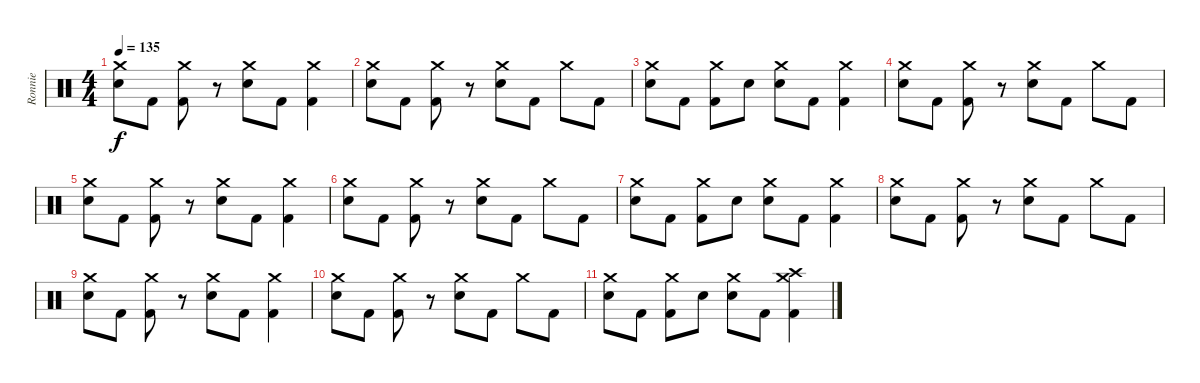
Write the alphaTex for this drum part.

\track ("Ronnie" "Ronnie") {instrument percussion}
\staff {score}
\articulation defaults
\ts (4 4)
\tempo 135
\clef neutral
\ks c
("Crash medium (hit)" "Electric Snare (hit)").8{dy f} "Kick (hit) 2".8 ("Kick (hit) 2" "Crash medium (hit)").8 r.8 ("Crash medium (hit)" "Electric Snare (hit)").8 "Kick (hit) 2".8 ("Kick (hit) 2" "Crash medium (hit)").4 |
("Crash medium (hit)" "Electric Snare (hit)").8 "Kick (hit) 2".8 ("Kick (hit) 2" "Crash medium (hit)").8 r.8 ("Crash medium (hit)" "Electric Snare (hit)").8 "Kick (hit) 2".8 "Crash medium (hit)".8 "Kick (hit) 2".8 |
("Crash medium (hit)" "Electric Snare (hit)").8 "Kick (hit) 2".8 ("Kick (hit) 2" "Crash medium (hit)").8 "Electric Snare (hit)".8 ("Crash medium (hit)" "Electric Snare (hit)").8 "Kick (hit) 2".8 ("Kick (hit) 2" "Crash medium (hit)").4 |
("Crash medium (hit)" "Electric Snare (hit)").8 "Kick (hit) 2".8 ("Kick (hit) 2" "Crash medium (hit)").8 r.8 ("Crash medium (hit)" "Electric Snare (hit)").8 "Kick (hit) 2".8 "Crash medium (hit)".8 "Kick (hit) 2".8 |
("Crash medium (hit)" "Electric Snare (hit)").8 "Kick (hit) 2".8 ("Kick (hit) 2" "Crash medium (hit)").8 r.8 ("Crash medium (hit)" "Electric Snare (hit)").8 "Kick (hit) 2".8 ("Kick (hit) 2" "Crash medium (hit)").4 |
("Crash medium (hit)" "Electric Snare (hit)").8 "Kick (hit) 2".8 ("Kick (hit) 2" "Crash medium (hit)").8 r.8 ("Crash medium (hit)" "Electric Snare (hit)").8 "Kick (hit) 2".8 "Crash medium (hit)".8 "Kick (hit) 2".8 |
("Crash medium (hit)" "Electric Snare (hit)").8 "Kick (hit) 2".8 ("Kick (hit) 2" "Crash medium (hit)").8 "Electric Snare (hit)".8 ("Crash medium (hit)" "Electric Snare (hit)").8 "Kick (hit) 2".8 ("Kick (hit) 2" "Crash medium (hit)").4 |
("Crash medium (hit)" "Electric Snare (hit)").8 "Kick (hit) 2".8 ("Kick (hit) 2" "Crash medium (hit)").8 r.8 ("Crash medium (hit)" "Electric Snare (hit)").8 "Kick (hit) 2".8 "Crash medium (hit)".8 "Kick (hit) 2".8 |
("Crash medium (hit)" "Electric Snare (hit)").8 "Kick (hit) 2".8 ("Kick (hit) 2" "Crash medium (hit)").8 r.8 ("Crash medium (hit)" "Electric Snare (hit)").8 "Kick (hit) 2".8 ("Kick (hit) 2" "Crash medium (hit)").4 |
("Crash medium (hit)" "Electric Snare (hit)").8 "Kick (hit) 2".8 ("Kick (hit) 2" "Crash medium (hit)").8 r.8 ("Crash medium (hit)" "Electric Snare (hit)").8 "Kick (hit) 2".8 "Crash medium (hit)".8 "Kick (hit) 2".8 |
("Crash medium (hit)" "Electric Snare (hit)").8 "Kick (hit) 2".8 ("Kick (hit) 2" "Crash medium (hit)").8 "Electric Snare (hit)".8 ("Crash medium (hit)" "Electric Snare (hit)").8 "Kick (hit) 2".8 ("Crash high (hit)" "Kick (hit) 2" "Crash medium (hit)").4
